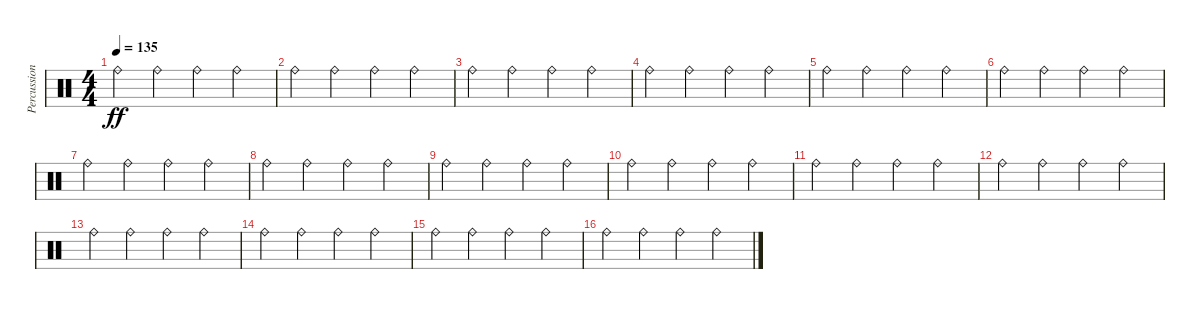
\track ("Percussion" "Percussion") {instrument percussion}
\staff {score}
\articulation defaults
\ts (4 4)
\tempo 135
\clef neutral
\ks c "Ride (bell)".4{dy ff} "Ride (bell)".4 "Ride (bell)".4 "Ride (bell)".4
|
"Ride (bell)".4 "Ride (bell)".4 "Ride (bell)".4 "Ride (bell)".4 |
"Ride (bell)".4 "Ride (bell)".4 "Ride (bell)".4 "Ride (bell)".4 |
"Ride (bell)".4 "Ride (bell)".4 "Ride (bell)".4 "Ride (bell)".4 |
"Ride (bell)".4 "Ride (bell)".4 "Ride (bell)".4 "Ride (bell)".4 |
"Ride (bell)".4 "Ride (bell)".4 "Ride (bell)".4 "Ride (bell)".4 |
"Ride (bell)".4 "Ride (bell)".4 "Ride (bell)".4 "Ride (bell)".4 |
"Ride (bell)".4 "Ride (bell)".4 "Ride (bell)".4 "Ride (bell)".4 |
"Ride (bell)".4 "Ride (bell)".4 "Ride (bell)".4 "Ride (bell)".4 |
"Ride (bell)".4 "Ride (bell)".4 "Ride (bell)".4 "Ride (bell)".4 |
"Ride (bell)".4 "Ride (bell)".4 "Ride (bell)".4 "Ride (bell)".4 |
"Ride (bell)".4 "Ride (bell)".4 "Ride (bell)".4 "Ride (bell)".4 |
"Ride (bell)".4 "Ride (bell)".4 "Ride (bell)".4 "Ride (bell)".4 |
"Ride (bell)".4 "Ride (bell)".4 "Ride (bell)".4 "Ride (bell)".4 |
"Ride (bell)".4 "Ride (bell)".4 "Ride (bell)".4 "Ride (bell)".4 |
"Ride (bell)".4 "Ride (bell)".4 "Ride (bell)".4 "Ride (bell)".4
